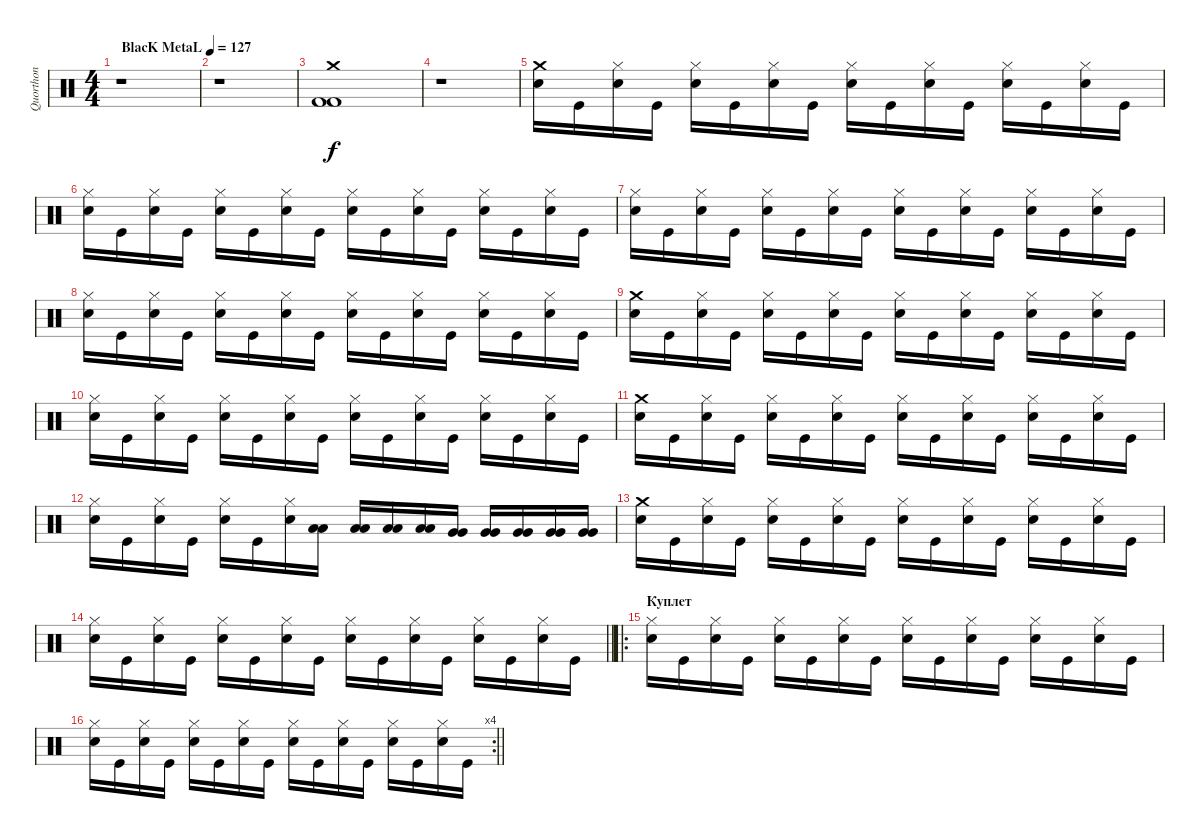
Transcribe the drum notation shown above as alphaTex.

\track ("Quorthon" "Quorthon") {instrument percussion}
\staff {score}
\articulation defaults
\ts (4 4)
\tempo (127 "BlacK MetaL")
\clef neutral
\ks c
r.1{dy f} |
r.1 |
("Crash medium (hit)" "Kick (hit) 2" "Kick (hit) 2").1 |
r.1 |
("Crash medium (hit)" "Electric Snare (hit)").16 "Kick (hit)".16 ("Hi-Hat (closed)" "Electric Snare (hit)").16 "Kick (hit)".16 ("Hi-Hat (closed)" "Electric Snare (hit)").16 "Kick (hit)".16 ("Hi-Hat (closed)" "Electric Snare (hit)").16 "Kick (hit)".16 ("Hi-Hat (closed)" "Electric Snare (hit)").16 "Kick (hit)".16 ("Hi-Hat (closed)" "Electric Snare (hit)").16 "Kick (hit)".16 ("Hi-Hat (closed)" "Electric Snare (hit)").16 "Kick (hit)".16 ("Hi-Hat (closed)" "Electric Snare (hit)").16 "Kick (hit)".16 |
("Hi-Hat (closed)" "Electric Snare (hit)").16 "Kick (hit)".16 ("Hi-Hat (closed)" "Electric Snare (hit)").16 "Kick (hit)".16 ("Hi-Hat (closed)" "Electric Snare (hit)").16 "Kick (hit)".16 ("Hi-Hat (closed)" "Electric Snare (hit)").16 "Kick (hit)".16 ("Hi-Hat (closed)" "Electric Snare (hit)").16 "Kick (hit)".16 ("Hi-Hat (closed)" "Electric Snare (hit)").16 "Kick (hit)".16 ("Hi-Hat (closed)" "Electric Snare (hit)").16 "Kick (hit)".16 ("Hi-Hat (closed)" "Electric Snare (hit)").16 "Kick (hit)".16 |
("Hi-Hat (closed)" "Electric Snare (hit)").16 "Kick (hit)".16 ("Hi-Hat (closed)" "Electric Snare (hit)").16 "Kick (hit)".16 ("Hi-Hat (closed)" "Electric Snare (hit)").16 "Kick (hit)".16 ("Hi-Hat (closed)" "Electric Snare (hit)").16 "Kick (hit)".16 ("Hi-Hat (closed)" "Electric Snare (hit)").16 "Kick (hit)".16 ("Hi-Hat (closed)" "Electric Snare (hit)").16 "Kick (hit)".16 ("Hi-Hat (closed)" "Electric Snare (hit)").16 "Kick (hit)".16 ("Hi-Hat (closed)" "Electric Snare (hit)").16 "Kick (hit)".16 |
("Hi-Hat (closed)" "Electric Snare (hit)").16 "Kick (hit)".16 ("Hi-Hat (closed)" "Electric Snare (hit)").16 "Kick (hit)".16 ("Hi-Hat (closed)" "Electric Snare (hit)").16 "Kick (hit)".16 ("Hi-Hat (closed)" "Electric Snare (hit)").16 "Kick (hit)".16 ("Hi-Hat (closed)" "Electric Snare (hit)").16 "Kick (hit)".16 ("Hi-Hat (closed)" "Electric Snare (hit)").16 "Kick (hit)".16 ("Hi-Hat (closed)" "Electric Snare (hit)").16 "Kick (hit)".16 ("Hi-Hat (closed)" "Electric Snare (hit)").16 "Kick (hit)".16 |
("Crash medium (hit)" "Electric Snare (hit)").16 "Kick (hit)".16 ("Hi-Hat (closed)" "Electric Snare (hit)").16 "Kick (hit)".16 ("Hi-Hat (closed)" "Electric Snare (hit)").16 "Kick (hit)".16 ("Hi-Hat (closed)" "Electric Snare (hit)").16 "Kick (hit)".16 ("Hi-Hat (closed)" "Electric Snare (hit)").16 "Kick (hit)".16 ("Hi-Hat (closed)" "Electric Snare (hit)").16 "Kick (hit)".16 ("Hi-Hat (closed)" "Electric Snare (hit)").16 "Kick (hit)".16 ("Hi-Hat (closed)" "Electric Snare (hit)").16 "Kick (hit)".16 |
("Hi-Hat (closed)" "Electric Snare (hit)").16 "Kick (hit)".16 ("Hi-Hat (closed)" "Electric Snare (hit)").16 "Kick (hit)".16 ("Hi-Hat (closed)" "Electric Snare (hit)").16 "Kick (hit)".16 ("Hi-Hat (closed)" "Electric Snare (hit)").16 "Kick (hit)".16 ("Hi-Hat (closed)" "Electric Snare (hit)").16 "Kick (hit)".16 ("Hi-Hat (closed)" "Electric Snare (hit)").16 "Kick (hit)".16 ("Hi-Hat (closed)" "Electric Snare (hit)").16 "Kick (hit)".16 ("Hi-Hat (closed)" "Electric Snare (hit)").16 "Kick (hit)".16 |
("Crash medium (hit)" "Electric Snare (hit)").16 "Kick (hit)".16 ("Hi-Hat (closed)" "Electric Snare (hit)").16 "Kick (hit)".16 ("Hi-Hat (closed)" "Electric Snare (hit)").16 "Kick (hit)".16 ("Hi-Hat (closed)" "Electric Snare (hit)").16 "Kick (hit)".16 ("Hi-Hat (closed)" "Electric Snare (hit)").16 "Kick (hit)".16 ("Hi-Hat (closed)" "Electric Snare (hit)").16 "Kick (hit)".16 ("Hi-Hat (closed)" "Electric Snare (hit)").16 "Kick (hit)".16 ("Hi-Hat (closed)" "Electric Snare (hit)").16 "Kick (hit)".16 |
("Hi-Hat (closed)" "Electric Snare (hit)").16 "Kick (hit)".16 ("Hi-Hat (closed)" "Electric Snare (hit)").16 "Kick (hit)".16 ("Hi-Hat (closed)" "Electric Snare (hit)").16 "Kick (hit)".16 ("Hi-Hat (closed)" "Electric Snare (hit)").16 ("Low Tom (hit)" "Low Tom (hit)").16 ("Low Tom (hit)" "Low Tom (hit)").16 ("Low Tom (hit)" "Low Tom (hit)").16 ("Low Tom (hit)" "Low Tom (hit)").16 ("Very Low Tom (hit)" "Very Low Tom (hit)").16 ("Very Low Tom (hit)" "Very Low Tom (hit)").16 ("Very Low Tom (hit)" "Very Low Tom (hit)").16 ("Very Low Tom (hit)" "Very Low Tom (hit)").16 ("Very Low Tom (hit)" "Very Low Tom (hit)").16 |
("Crash medium (hit)" "Electric Snare (hit)").16 "Kick (hit)".16 ("Hi-Hat (closed)" "Electric Snare (hit)").16 "Kick (hit)".16 ("Hi-Hat (closed)" "Electric Snare (hit)").16 "Kick (hit)".16 ("Hi-Hat (closed)" "Electric Snare (hit)").16 "Kick (hit)".16 ("Hi-Hat (closed)" "Electric Snare (hit)").16 "Kick (hit)".16 ("Hi-Hat (closed)" "Electric Snare (hit)").16 "Kick (hit)".16 ("Hi-Hat (closed)" "Electric Snare (hit)").16 "Kick (hit)".16 ("Hi-Hat (closed)" "Electric Snare (hit)").16 "Kick (hit)".16 |
\barLineRight lightlight
("Hi-Hat (closed)" "Electric Snare (hit)").16 "Kick (hit)".16 ("Hi-Hat (closed)" "Electric Snare (hit)").16 "Kick (hit)".16 ("Hi-Hat (closed)" "Electric Snare (hit)").16 "Kick (hit)".16 ("Hi-Hat (closed)" "Electric Snare (hit)").16 "Kick (hit)".16 ("Hi-Hat (closed)" "Electric Snare (hit)").16 "Kick (hit)".16 ("Hi-Hat (closed)" "Electric Snare (hit)").16 "Kick (hit)".16 ("Hi-Hat (closed)" "Electric Snare (hit)").16 "Kick (hit)".16 ("Hi-Hat (closed)" "Electric Snare (hit)").16 "Kick (hit)".16 |
\ro
\section ("" "Куплет")
("Hi-Hat (closed)" "Electric Snare (hit)").16 "Kick (hit)".16 ("Hi-Hat (closed)" "Electric Snare (hit)").16 "Kick (hit)".16 ("Hi-Hat (closed)" "Electric Snare (hit)").16 "Kick (hit)".16 ("Hi-Hat (closed)" "Electric Snare (hit)").16 "Kick (hit)".16 ("Hi-Hat (closed)" "Electric Snare (hit)").16 "Kick (hit)".16 ("Hi-Hat (closed)" "Electric Snare (hit)").16 "Kick (hit)".16 ("Hi-Hat (closed)" "Electric Snare (hit)").16 "Kick (hit)".16 ("Hi-Hat (closed)" "Electric Snare (hit)").16 "Kick (hit)".16 |
\rc 4
\barLineRight lightlight
("Hi-Hat (closed)" "Electric Snare (hit)").16 "Kick (hit)".16 ("Hi-Hat (closed)" "Electric Snare (hit)").16 "Kick (hit)".16 ("Hi-Hat (closed)" "Electric Snare (hit)").16 "Kick (hit)".16 ("Hi-Hat (closed)" "Electric Snare (hit)").16 "Kick (hit)".16 ("Hi-Hat (closed)" "Electric Snare (hit)").16 "Kick (hit)".16 ("Hi-Hat (closed)" "Electric Snare (hit)").16 "Kick (hit)".16 ("Hi-Hat (closed)" "Electric Snare (hit)").16 "Kick (hit)".16 ("Hi-Hat (closed)" "Electric Snare (hit)").16 "Kick (hit)".16
